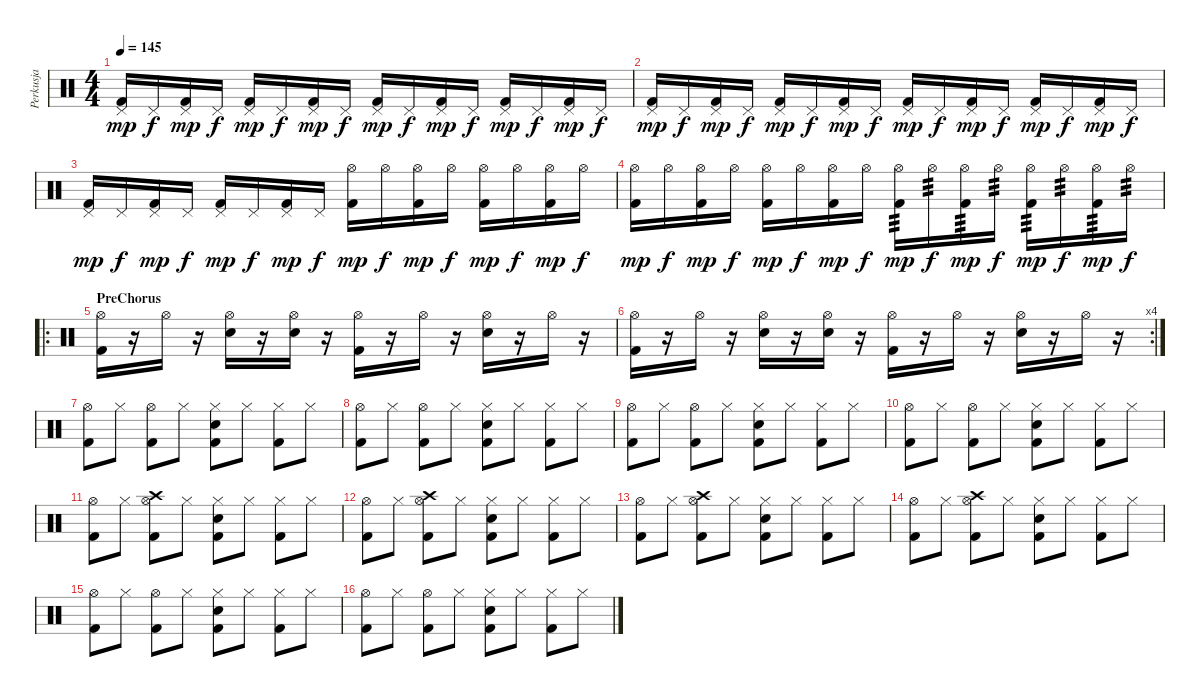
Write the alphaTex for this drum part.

\track ("Perkusja" "Perkusja") {instrument percussion}
\staff {score}
\articulation defaults
\ts (4 4)
\tempo 145
\clef neutral
\ks c
("Pedal Hi-Hat (hit)" "Kick (hit) 2").16{dy mp} "Pedal Hi-Hat (hit)".16{dy f} ("Pedal Hi-Hat (hit)" "Kick (hit) 2").16{dy mp} "Pedal Hi-Hat (hit)".16{dy f} ("Pedal Hi-Hat (hit)" "Kick (hit) 2").16{dy mp} "Pedal Hi-Hat (hit)".16{dy f} ("Pedal Hi-Hat (hit)" "Kick (hit) 2").16{dy mp} "Pedal Hi-Hat (hit)".16{dy f} ("Pedal Hi-Hat (hit)" "Kick (hit) 2").16{dy mp} "Pedal Hi-Hat (hit)".16{dy f} ("Pedal Hi-Hat (hit)" "Kick (hit) 2").16{dy mp} "Pedal Hi-Hat (hit)".16{dy f} ("Pedal Hi-Hat (hit)" "Kick (hit) 2").16{dy mp} "Pedal Hi-Hat (hit)".16{dy f} ("Pedal Hi-Hat (hit)" "Kick (hit) 2").16{dy mp} "Pedal Hi-Hat (hit)".16{dy f} |
("Pedal Hi-Hat (hit)" "Kick (hit) 2").16{dy mp} "Pedal Hi-Hat (hit)".16{dy f} ("Pedal Hi-Hat (hit)" "Kick (hit) 2").16{dy mp} "Pedal Hi-Hat (hit)".16{dy f} ("Pedal Hi-Hat (hit)" "Kick (hit) 2").16{dy mp} "Pedal Hi-Hat (hit)".16{dy f} ("Pedal Hi-Hat (hit)" "Kick (hit) 2").16{dy mp} "Pedal Hi-Hat (hit)".16{dy f} ("Pedal Hi-Hat (hit)" "Kick (hit) 2").16{dy mp} "Pedal Hi-Hat (hit)".16{dy f} ("Pedal Hi-Hat (hit)" "Kick (hit) 2").16{dy mp} "Pedal Hi-Hat (hit)".16{dy f} ("Pedal Hi-Hat (hit)" "Kick (hit) 2").16{dy mp} "Pedal Hi-Hat (hit)".16{dy f} ("Pedal Hi-Hat (hit)" "Kick (hit) 2").16{dy mp} "Pedal Hi-Hat (hit)".16{dy f} |
("Pedal Hi-Hat (hit)" "Kick (hit) 2").16{dy mp} "Pedal Hi-Hat (hit)".16{dy f} ("Pedal Hi-Hat (hit)" "Kick (hit) 2").16{dy mp} "Pedal Hi-Hat (hit)".16{dy f} ("Pedal Hi-Hat (hit)" "Kick (hit) 2").16{dy mp} "Pedal Hi-Hat (hit)".16{dy f} ("Pedal Hi-Hat (hit)" "Kick (hit) 2").16{dy mp} "Pedal Hi-Hat (hit)".16{dy f} ("Hi-Hat (open)" "Kick (hit) 2").16{dy mp} "Hi-Hat (open)".16{dy f} ("Hi-Hat (open)" "Kick (hit) 2").16{dy mp} "Hi-Hat (open)".16{dy f} ("Hi-Hat (open)" "Kick (hit) 2").16{dy mp} "Hi-Hat (open)".16{dy f} ("Hi-Hat (open)" "Kick (hit) 2").16{dy mp} "Hi-Hat (open)".16{dy f} |
("Hi-Hat (open)" "Kick (hit) 2").16{dy mp} "Hi-Hat (open)".16{dy f} ("Hi-Hat (open)" "Kick (hit) 2").16{dy mp} "Hi-Hat (open)".16{dy f} ("Hi-Hat (open)" "Kick (hit) 2").16{dy mp} "Hi-Hat (open)".16{dy f} ("Hi-Hat (open)" "Kick (hit) 2").16{dy mp} "Hi-Hat (open)".16{dy f} ("Hi-Hat (open)" "Kick (hit) 2").16{tp 3 dy mp} "Hi-Hat (open)".16{tp 3 dy f} ("Hi-Hat (open)" "Kick (hit) 2").16{tp 3 dy mp} "Hi-Hat (open)".16{tp 3 dy f} ("Hi-Hat (open)" "Kick (hit) 2").16{tp 3 dy mp} "Hi-Hat (open)".16{tp 3 dy f} ("Hi-Hat (open)" "Kick (hit) 2").16{tp 3 dy mp} "Hi-Hat (open)".16{tp 3 dy f} |
\ro
\section ("" "PreChorus")
("Hi-Hat (open)" "Kick (hit) 2").16 r.16 "Hi-Hat (open)".16 r.16 ("Hi-Hat (open)" "Electric Snare (hit)").16 r.16 ("Hi-Hat (open)" "Electric Snare (hit)").16 r.16 ("Hi-Hat (open)" "Kick (hit) 2").16 r.16 "Hi-Hat (open)".16 r.16 ("Hi-Hat (open)" "Electric Snare (hit)").16 r.16 "Hi-Hat (open)".16 r.16 |
\rc 4
("Hi-Hat (open)" "Kick (hit) 2").16 r.16 "Hi-Hat (open)".16 r.16 ("Hi-Hat (open)" "Electric Snare (hit)").16 r.16 ("Hi-Hat (open)" "Electric Snare (hit)").16 r.16 ("Hi-Hat (open)" "Kick (hit) 2").16 r.16 "Hi-Hat (open)".16 r.16 ("Hi-Hat (open)" "Electric Snare (hit)").16 r.16 "Hi-Hat (open)".16 r.16 |
("Hi-Hat (open)" "Kick (hit) 2").8 "Hi-Hat (closed)".8 ("Hi-Hat (open)" "Kick (hit) 2").8 "Hi-Hat (closed)".8 ("Hi-Hat (closed)" "Electric Snare (hit)" "Kick (hit) 2").8 "Hi-Hat (closed)".8 ("Hi-Hat (closed)" "Kick (hit) 2").8 "Hi-Hat (closed)".8 |
("Hi-Hat (open)" "Kick (hit) 2").8 "Hi-Hat (closed)".8 ("Hi-Hat (open)" "Kick (hit) 2").8 "Hi-Hat (closed)".8 ("Hi-Hat (closed)" "Electric Snare (hit)" "Kick (hit) 2").8 "Hi-Hat (closed)".8 ("Hi-Hat (closed)" "Kick (hit) 2").8 "Hi-Hat (closed)".8 |
("Hi-Hat (open)" "Kick (hit) 2").8 "Hi-Hat (closed)".8 ("Hi-Hat (open)" "Kick (hit) 2").8 "Hi-Hat (closed)".8 ("Hi-Hat (closed)" "Electric Snare (hit)" "Kick (hit) 2").8 "Hi-Hat (closed)".8 ("Hi-Hat (closed)" "Kick (hit) 2").8 "Hi-Hat (closed)".8 |
("Hi-Hat (open)" "Kick (hit) 2").8 "Hi-Hat (closed)".8 ("Hi-Hat (open)" "Kick (hit) 2").8 "Hi-Hat (closed)".8 ("Hi-Hat (closed)" "Electric Snare (hit)" "Kick (hit) 2").8 "Hi-Hat (closed)".8 ("Hi-Hat (closed)" "Kick (hit) 2").8 "Hi-Hat (closed)".8 |
("Hi-Hat (open)" "Kick (hit) 2").8 "Hi-Hat (closed)".8 ("Hi-Hat (open)" "Crash high (hit)" "Kick (hit) 2").8 "Hi-Hat (closed)".8 ("Hi-Hat (closed)" "Electric Snare (hit)" "Kick (hit) 2").8 "Hi-Hat (closed)".8 ("Hi-Hat (closed)" "Kick (hit) 2").8 "Hi-Hat (closed)".8 |
("Hi-Hat (open)" "Kick (hit) 2").8 "Hi-Hat (closed)".8 ("Hi-Hat (open)" "Crash high (hit)" "Kick (hit) 2").8 "Hi-Hat (closed)".8 ("Hi-Hat (closed)" "Electric Snare (hit)" "Kick (hit) 2").8 "Hi-Hat (closed)".8 ("Hi-Hat (closed)" "Kick (hit) 2").8 "Hi-Hat (closed)".8 |
("Hi-Hat (open)" "Kick (hit) 2").8 "Hi-Hat (closed)".8 ("Hi-Hat (open)" "Crash high (hit)" "Kick (hit) 2").8 "Hi-Hat (closed)".8 ("Hi-Hat (closed)" "Electric Snare (hit)" "Kick (hit) 2").8 "Hi-Hat (closed)".8 ("Hi-Hat (closed)" "Kick (hit) 2").8 "Hi-Hat (closed)".8 |
("Hi-Hat (open)" "Kick (hit) 2").8 "Hi-Hat (closed)".8 ("Hi-Hat (open)" "Crash high (hit)" "Kick (hit) 2").8 "Hi-Hat (closed)".8 ("Hi-Hat (closed)" "Electric Snare (hit)" "Kick (hit) 2").8 "Hi-Hat (closed)".8 ("Hi-Hat (closed)" "Kick (hit) 2").8 "Hi-Hat (closed)".8 |
("Hi-Hat (open)" "Kick (hit) 2").8 "Hi-Hat (closed)".8 ("Hi-Hat (open)" "Kick (hit) 2").8 "Hi-Hat (closed)".8 ("Hi-Hat (closed)" "Electric Snare (hit)" "Kick (hit) 2").8 "Hi-Hat (closed)".8 ("Hi-Hat (closed)" "Kick (hit) 2").8 "Hi-Hat (closed)".8 |
("Hi-Hat (open)" "Kick (hit) 2").8 "Hi-Hat (closed)".8 ("Hi-Hat (open)" "Kick (hit) 2").8 "Hi-Hat (closed)".8 ("Hi-Hat (closed)" "Electric Snare (hit)" "Kick (hit) 2").8 "Hi-Hat (closed)".8 ("Hi-Hat (closed)" "Kick (hit) 2").8 "Hi-Hat (closed)".8
